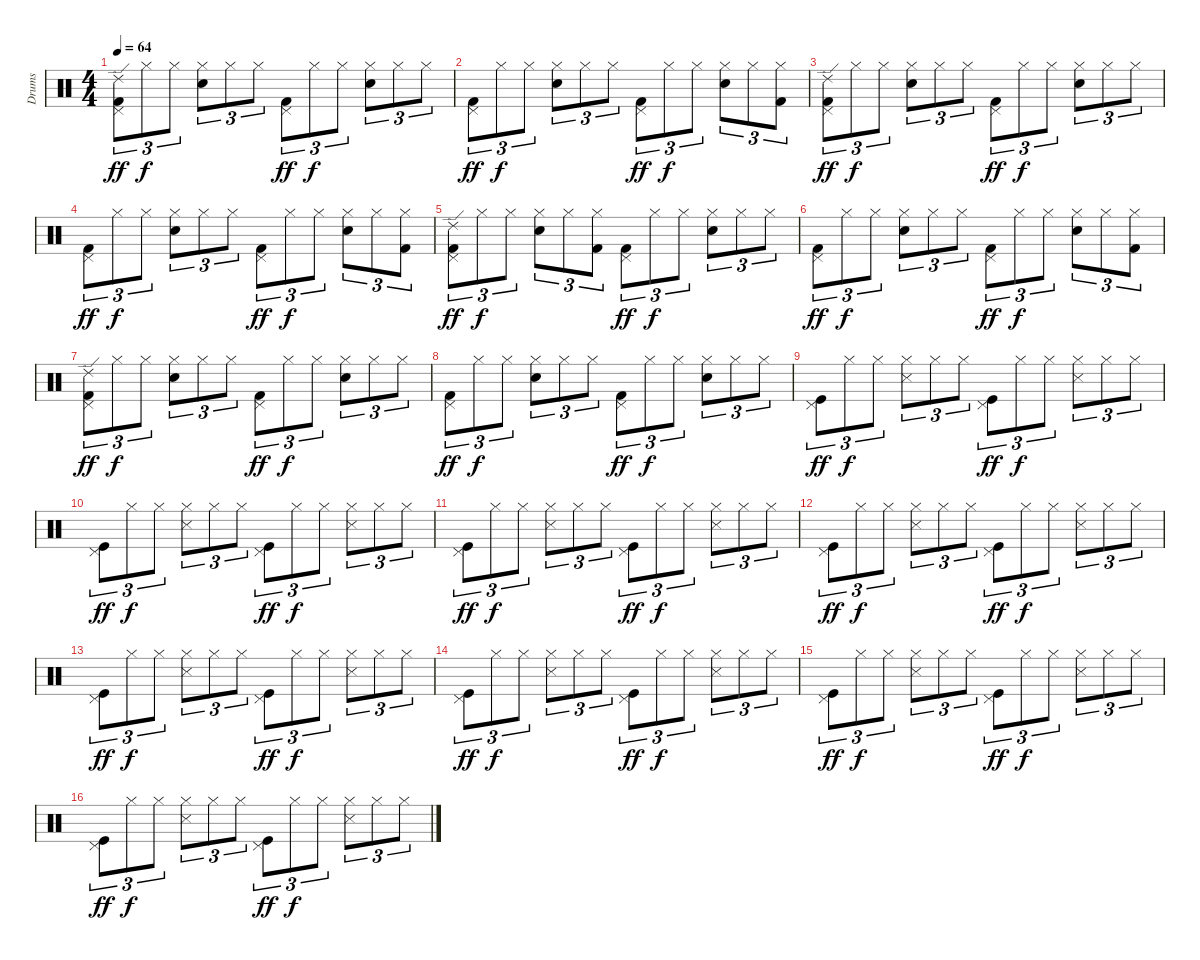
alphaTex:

\track ("Drums" "Drums") {instrument percussion}
\staff {score}
\articulation defaults
\ts (4 4)
\tempo 64
\clef neutral
\ks c
("Pedal Hi-Hat (hit)" "Ride (edge) 2" "Kick (hit) 2").8{tu (3 2) dy ff} "Hi-Hat (closed)".8{tu (3 2) dy f} "Hi-Hat (closed)".8{tu (3 2)} ("Hi-Hat (closed)" "Snare (hit) 2").8{tu (3 2)} "Hi-Hat (closed)".8{tu (3 2)} "Hi-Hat (closed)".8{tu (3 2)} ("Pedal Hi-Hat (hit)" "Kick (hit) 2").8{tu (3 2) dy ff} "Hi-Hat (closed)".8{tu (3 2) dy f} "Hi-Hat (closed)".8{tu (3 2)} ("Hi-Hat (closed)" "Snare (hit) 2").8{tu (3 2)} "Hi-Hat (closed)".8{tu (3 2)} "Hi-Hat (closed)".8{tu (3 2)} |
("Pedal Hi-Hat (hit)" "Kick (hit) 2").8{tu (3 2) dy ff} "Hi-Hat (closed)".8{tu (3 2) dy f} "Hi-Hat (closed)".8{tu (3 2)} ("Hi-Hat (closed)" "Snare (hit) 2").8{tu (3 2)} "Hi-Hat (closed)".8{tu (3 2)} "Hi-Hat (closed)".8{tu (3 2)} ("Pedal Hi-Hat (hit)" "Kick (hit) 2").8{tu (3 2) dy ff} "Hi-Hat (closed)".8{tu (3 2) dy f} "Hi-Hat (closed)".8{tu (3 2)} ("Hi-Hat (closed)" "Snare (hit) 2").8{tu (3 2)} "Hi-Hat (closed)".8{tu (3 2)} ("Hi-Hat (closed)" "Kick (hit) 2").8{tu (3 2)} |
("Pedal Hi-Hat (hit)" "Ride (edge) 2" "Kick (hit) 2").8{tu (3 2) dy ff} "Hi-Hat (closed)".8{tu (3 2) dy f} "Hi-Hat (closed)".8{tu (3 2)} ("Hi-Hat (closed)" "Snare (hit) 2").8{tu (3 2)} "Hi-Hat (closed)".8{tu (3 2)} "Hi-Hat (closed)".8{tu (3 2)} ("Pedal Hi-Hat (hit)" "Kick (hit) 2").8{tu (3 2) dy ff} "Hi-Hat (closed)".8{tu (3 2) dy f} "Hi-Hat (closed)".8{tu (3 2)} ("Hi-Hat (closed)" "Snare (hit) 2").8{tu (3 2)} "Hi-Hat (closed)".8{tu (3 2)} "Hi-Hat (closed)".8{tu (3 2)} |
("Pedal Hi-Hat (hit)" "Kick (hit) 2").8{tu (3 2) dy ff} "Hi-Hat (closed)".8{tu (3 2) dy f} "Hi-Hat (closed)".8{tu (3 2)} ("Hi-Hat (closed)" "Snare (hit) 2").8{tu (3 2)} "Hi-Hat (closed)".8{tu (3 2)} "Hi-Hat (closed)".8{tu (3 2)} ("Pedal Hi-Hat (hit)" "Kick (hit) 2").8{tu (3 2) dy ff} "Hi-Hat (closed)".8{tu (3 2) dy f} "Hi-Hat (closed)".8{tu (3 2)} ("Hi-Hat (closed)" "Snare (hit) 2").8{tu (3 2)} "Hi-Hat (closed)".8{tu (3 2)} ("Hi-Hat (closed)" "Kick (hit) 2").8{tu (3 2)} |
("Pedal Hi-Hat (hit)" "Ride (edge) 2" "Kick (hit) 2").8{tu (3 2) dy ff} "Hi-Hat (closed)".8{tu (3 2) dy f} "Hi-Hat (closed)".8{tu (3 2)} ("Hi-Hat (closed)" "Snare (hit) 2").8{tu (3 2)} "Hi-Hat (closed)".8{tu (3 2)} ("Hi-Hat (closed)" "Kick (hit) 2").8{tu (3 2)} ("Pedal Hi-Hat (hit)" "Kick (hit) 2").8{tu (3 2) dy ff} "Hi-Hat (closed)".8{tu (3 2) dy f} "Hi-Hat (closed)".8{tu (3 2)} ("Hi-Hat (closed)" "Snare (hit) 2").8{tu (3 2)} "Hi-Hat (closed)".8{tu (3 2)} "Hi-Hat (closed)".8{tu (3 2)} |
("Pedal Hi-Hat (hit)" "Kick (hit) 2").8{tu (3 2) dy ff} "Hi-Hat (closed)".8{tu (3 2) dy f} "Hi-Hat (closed)".8{tu (3 2)} ("Hi-Hat (closed)" "Snare (hit) 2").8{tu (3 2)} "Hi-Hat (closed)".8{tu (3 2)} "Hi-Hat (closed)".8{tu (3 2)} ("Pedal Hi-Hat (hit)" "Kick (hit) 2").8{tu (3 2) dy ff} "Hi-Hat (closed)".8{tu (3 2) dy f} "Hi-Hat (closed)".8{tu (3 2)} ("Hi-Hat (closed)" "Snare (hit) 2").8{tu (3 2)} "Hi-Hat (closed)".8{tu (3 2)} ("Hi-Hat (closed)" "Kick (hit) 2").8{tu (3 2)} |
("Pedal Hi-Hat (hit)" "Ride (edge) 2" "Kick (hit) 2").8{tu (3 2) dy ff} "Hi-Hat (closed)".8{tu (3 2) dy f} "Hi-Hat (closed)".8{tu (3 2)} ("Hi-Hat (closed)" "Snare (hit) 2").8{tu (3 2)} "Hi-Hat (closed)".8{tu (3 2)} "Hi-Hat (closed)".8{tu (3 2)} ("Pedal Hi-Hat (hit)" "Kick (hit) 2").8{tu (3 2) dy ff} "Hi-Hat (closed)".8{tu (3 2) dy f} "Hi-Hat (closed)".8{tu (3 2)} ("Hi-Hat (closed)" "Snare (hit) 2").8{tu (3 2)} "Hi-Hat (closed)".8{tu (3 2)} "Hi-Hat (closed)".8{tu (3 2)} |
("Pedal Hi-Hat (hit)" "Kick (hit) 2").8{tu (3 2) dy ff} "Hi-Hat (closed)".8{tu (3 2) dy f} "Hi-Hat (closed)".8{tu (3 2)} ("Hi-Hat (closed)" "Snare (hit) 2").8{tu (3 2)} "Hi-Hat (closed)".8{tu (3 2)} "Hi-Hat (closed)".8{tu (3 2)} ("Pedal Hi-Hat (hit)" "Kick (hit) 2").8{tu (3 2) dy ff} "Hi-Hat (closed)".8{tu (3 2) dy f} "Hi-Hat (closed)".8{tu (3 2)} ("Hi-Hat (closed)" "Snare (hit) 2").8{tu (3 2)} "Hi-Hat (closed)".8{tu (3 2)} "Hi-Hat (closed)".8{tu (3 2)} |
("Pedal Hi-Hat (hit)" "Kick (hit)").8{tu (3 2) dy ff} "Hi-Hat (closed)".8{tu (3 2) dy f} "Hi-Hat (closed)".8{tu (3 2)} ("Hi-Hat (closed)" "Snare (side stick) 3").8{tu (3 2)} "Hi-Hat (closed)".8{tu (3 2)} "Hi-Hat (closed)".8{tu (3 2)} ("Pedal Hi-Hat (hit)" "Kick (hit)").8{tu (3 2) dy ff} "Hi-Hat (closed)".8{tu (3 2) dy f} "Hi-Hat (closed)".8{tu (3 2)} ("Hi-Hat (closed)" "Snare (side stick) 3").8{tu (3 2)} "Hi-Hat (closed)".8{tu (3 2)} "Hi-Hat (closed)".8{tu (3 2)} |
("Pedal Hi-Hat (hit)" "Kick (hit)").8{tu (3 2) dy ff} "Hi-Hat (closed)".8{tu (3 2) dy f} "Hi-Hat (closed)".8{tu (3 2)} ("Hi-Hat (closed)" "Snare (side stick) 3").8{tu (3 2)} "Hi-Hat (closed)".8{tu (3 2)} "Hi-Hat (closed)".8{tu (3 2)} ("Pedal Hi-Hat (hit)" "Kick (hit)").8{tu (3 2) dy ff} "Hi-Hat (closed)".8{tu (3 2) dy f} "Hi-Hat (closed)".8{tu (3 2)} ("Hi-Hat (closed)" "Snare (side stick) 3").8{tu (3 2)} "Hi-Hat (closed)".8{tu (3 2)} "Hi-Hat (closed)".8{tu (3 2)} |
("Pedal Hi-Hat (hit)" "Kick (hit)").8{tu (3 2) dy ff} "Hi-Hat (closed)".8{tu (3 2) dy f} "Hi-Hat (closed)".8{tu (3 2)} ("Hi-Hat (closed)" "Snare (side stick) 3").8{tu (3 2)} "Hi-Hat (closed)".8{tu (3 2)} "Hi-Hat (closed)".8{tu (3 2)} ("Pedal Hi-Hat (hit)" "Kick (hit)").8{tu (3 2) dy ff} "Hi-Hat (closed)".8{tu (3 2) dy f} "Hi-Hat (closed)".8{tu (3 2)} ("Hi-Hat (closed)" "Snare (side stick) 3").8{tu (3 2)} "Hi-Hat (closed)".8{tu (3 2)} "Hi-Hat (closed)".8{tu (3 2)} |
("Pedal Hi-Hat (hit)" "Kick (hit)").8{tu (3 2) dy ff} "Hi-Hat (closed)".8{tu (3 2) dy f} "Hi-Hat (closed)".8{tu (3 2)} ("Hi-Hat (closed)" "Snare (side stick) 3").8{tu (3 2)} "Hi-Hat (closed)".8{tu (3 2)} "Hi-Hat (closed)".8{tu (3 2)} ("Pedal Hi-Hat (hit)" "Kick (hit)").8{tu (3 2) dy ff} "Hi-Hat (closed)".8{tu (3 2) dy f} "Hi-Hat (closed)".8{tu (3 2)} ("Hi-Hat (closed)" "Snare (side stick) 3").8{tu (3 2)} "Hi-Hat (closed)".8{tu (3 2)} "Hi-Hat (closed)".8{tu (3 2)} |
("Pedal Hi-Hat (hit)" "Kick (hit)").8{tu (3 2) dy ff} "Hi-Hat (closed)".8{tu (3 2) dy f} "Hi-Hat (closed)".8{tu (3 2)} ("Hi-Hat (closed)" "Snare (side stick) 3").8{tu (3 2)} "Hi-Hat (closed)".8{tu (3 2)} "Hi-Hat (closed)".8{tu (3 2)} ("Pedal Hi-Hat (hit)" "Kick (hit)").8{tu (3 2) dy ff} "Hi-Hat (closed)".8{tu (3 2) dy f} "Hi-Hat (closed)".8{tu (3 2)} ("Hi-Hat (closed)" "Snare (side stick) 3").8{tu (3 2)} "Hi-Hat (closed)".8{tu (3 2)} "Hi-Hat (closed)".8{tu (3 2)} |
("Pedal Hi-Hat (hit)" "Kick (hit)").8{tu (3 2) dy ff} "Hi-Hat (closed)".8{tu (3 2) dy f} "Hi-Hat (closed)".8{tu (3 2)} ("Hi-Hat (closed)" "Snare (side stick) 3").8{tu (3 2)} "Hi-Hat (closed)".8{tu (3 2)} "Hi-Hat (closed)".8{tu (3 2)} ("Pedal Hi-Hat (hit)" "Kick (hit)").8{tu (3 2) dy ff} "Hi-Hat (closed)".8{tu (3 2) dy f} "Hi-Hat (closed)".8{tu (3 2)} ("Hi-Hat (closed)" "Snare (side stick) 3").8{tu (3 2)} "Hi-Hat (closed)".8{tu (3 2)} "Hi-Hat (closed)".8{tu (3 2)} |
("Pedal Hi-Hat (hit)" "Kick (hit)").8{tu (3 2) dy ff} "Hi-Hat (closed)".8{tu (3 2) dy f} "Hi-Hat (closed)".8{tu (3 2)} ("Hi-Hat (closed)" "Snare (side stick) 3").8{tu (3 2)} "Hi-Hat (closed)".8{tu (3 2)} "Hi-Hat (closed)".8{tu (3 2)} ("Pedal Hi-Hat (hit)" "Kick (hit)").8{tu (3 2) dy ff} "Hi-Hat (closed)".8{tu (3 2) dy f} "Hi-Hat (closed)".8{tu (3 2)} ("Hi-Hat (closed)" "Snare (side stick) 3").8{tu (3 2)} "Hi-Hat (closed)".8{tu (3 2)} "Hi-Hat (closed)".8{tu (3 2)} |
("Pedal Hi-Hat (hit)" "Kick (hit)").8{tu (3 2) dy ff} "Hi-Hat (closed)".8{tu (3 2) dy f} "Hi-Hat (closed)".8{tu (3 2)} ("Hi-Hat (closed)" "Snare (side stick) 3").8{tu (3 2)} "Hi-Hat (closed)".8{tu (3 2)} "Hi-Hat (closed)".8{tu (3 2)} ("Pedal Hi-Hat (hit)" "Kick (hit)").8{tu (3 2) dy ff} "Hi-Hat (closed)".8{tu (3 2) dy f} "Hi-Hat (closed)".8{tu (3 2)} ("Hi-Hat (closed)" "Snare (side stick) 3").8{tu (3 2)} "Hi-Hat (closed)".8{tu (3 2)} "Hi-Hat (closed)".8{tu (3 2)}
